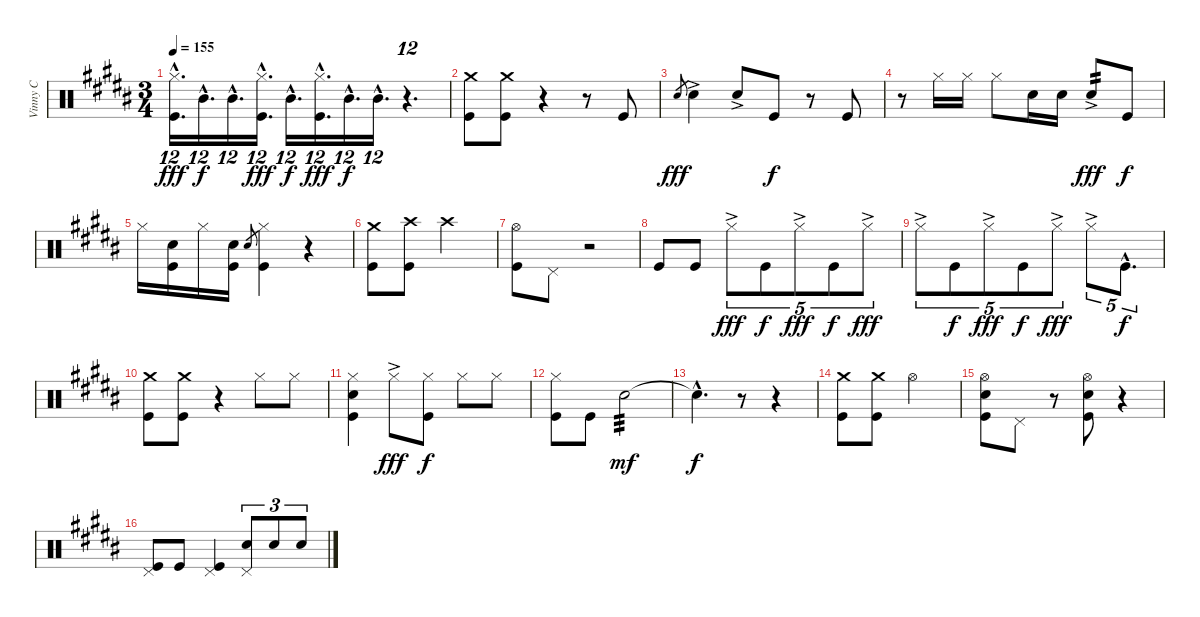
\track ("Vinny C" "Vinny C") {instrument percussion}
\staff {score}
\articulation defaults
\ts (3 4)
\tempo 155
\clef neutral
\ks b
("Hi-Hat (closed)"{hac} "Kick (hit)"{hac}).16{d tu (12 8) dy fff} "Mid Tom (hit)"{hac}.16{d tu (12 8) dy f} "Mid Tom (hit)"{hac}.16{d tu (12 8)} ("Hi-Hat (closed)"{hac} "Kick (hit)"{hac}).16{d tu (12 8) dy fff} "Mid Tom (hit)"{hac}.16{d tu (12 8) dy f} ("Hi-Hat (closed)"{hac} "Kick (hit)"{hac}).16{d tu (12 8) dy fff} "Mid Tom (hit)"{hac}.16{d tu (12 8) dy f} "Mid Tom (hit)"{hac}.16{d tu (12 8)} r.4{d tu (12 8)} |
("Crash medium (hit)" "Kick (hit)").8 ("Crash medium (hit)" "Kick (hit)").8 r.4 r.8 "Kick (hit)".8 |
"Electric Snare (hit)".8{gr dy fff} "Electric Snare (hit)"{ac}.4 "Electric Snare (hit)"{ac}.8 "Kick (hit)".8{dy f} r.8 "Kick (hit)".8 |
r.8 "Hi-Hat (closed)".16 "Hi-Hat (closed)".16 "Hi-Hat (closed)".8 "Electric Snare (hit)".16 "Electric Snare (hit)".16 "Electric Snare (hit)"{ac}.8{tp 2 dy fff} "Kick (hit)".8{dy f} |
"Hi-Hat (closed)".16 ("Electric Snare (hit)" "Kick (hit)").16 "Hi-Hat (closed)".16 ("Electric Snare (hit)" "Kick (hit)").16 "Electric Snare (hit)".8{gr} ("Hi-Hat (closed)" "Kick (hit)").4 r.4 |
("Crash medium (hit)" "Kick (hit)").8 ("Crash high (hit)" "Kick (hit)").8 "Crash high (hit)".2 |
("Hi-Hat (open)" "Kick (hit)").8 "Pedal Hi-Hat (hit)".8 r.2 |
"Kick (hit)".8 "Kick (hit)".8 "Hi-Hat (closed)"{ac}.8{tu (5 4) dy fff} "Kick (hit)".8{tu (5 4) dy f} "Hi-Hat (closed)"{ac}.8{tu (5 4) dy fff} "Kick (hit)".8{tu (5 4) dy f} "Hi-Hat (closed)"{ac}.8{tu (5 4) dy fff} |
"Hi-Hat (closed)"{ac}.8{tu (5 4)} "Kick (hit)".8{tu (5 4) dy f} "Hi-Hat (closed)"{ac}.8{tu (5 4) dy fff} "Kick (hit)".8{tu (5 4) dy f} "Hi-Hat (closed)"{ac}.8{tu (5 4) dy fff} "Hi-Hat (closed)"{ac}.8{tu (5 4)} "Kick (hit)"{hac}.8{d tu (5 4) dy f} |
("Crash medium (hit)" "Kick (hit)").8 ("Crash medium (hit)" "Kick (hit)").8 r.4 "Hi-Hat (closed)".8 "Hi-Hat (closed)".8 |
("Hi-Hat (closed)" "Electric Snare (hit)" "Kick (hit)").4 "Hi-Hat (closed)"{ac}.8{dy fff} ("Hi-Hat (closed)" "Kick (hit)").8{dy f} "Hi-Hat (closed)".8 "Hi-Hat (closed)".8 |
("Hi-Hat (closed)" "Kick (hit)").8 "Kick (hit)".8 "Electric Snare (hit)".2{tp 3 dy mf} |
"Electric Snare (hit)"{hac t}.4{d dy f} r.8 r.4 |
("Crash medium (hit)" "Kick (hit)").8 ("Crash medium (hit)" "Kick (hit)").8 "Hi-Hat (open)".2 |
("Hi-Hat (open)" "Electric Snare (hit)" "Kick (hit)").8 "Pedal Hi-Hat (hit)".8 r.8 ("Hi-Hat (open)" "Electric Snare (hit)" "Kick (hit)").8 r.4 |
("Pedal Hi-Hat (hit)" "Kick (hit)").8 "Kick (hit)".8 ("Pedal Hi-Hat (hit)" "Kick (hit)").4 ("Pedal Hi-Hat (hit)" "Electric Snare (hit)").8{tu (3 2)} "Electric Snare (hit)".8{tu (3 2)} "Electric Snare (hit)".8{tu (3 2)}
